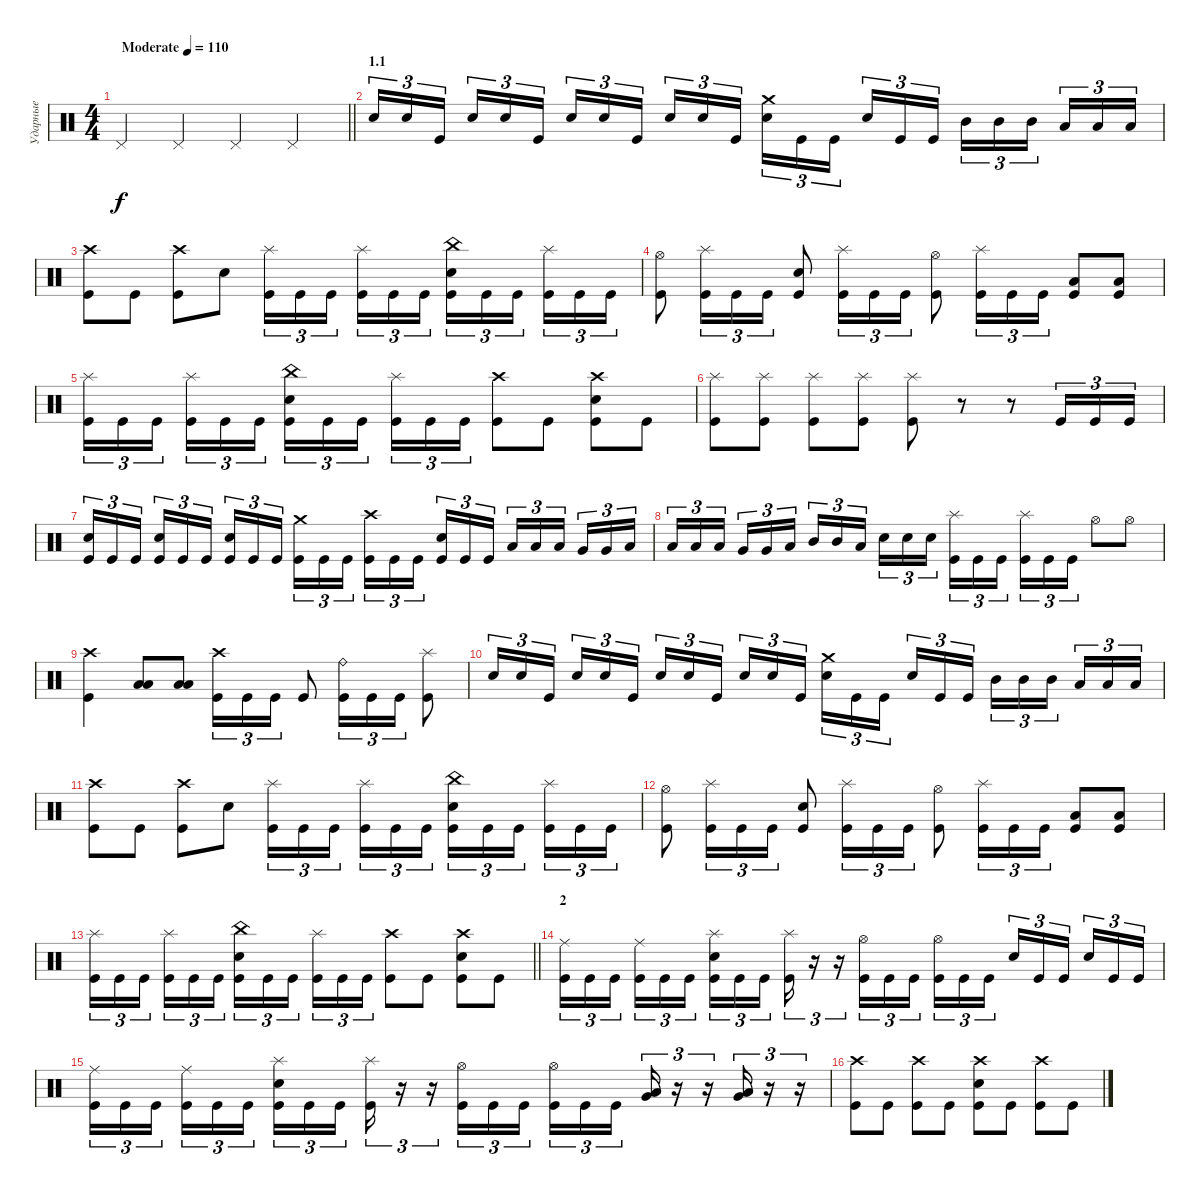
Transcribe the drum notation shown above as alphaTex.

\track ("Ударные" "Ударные") {instrument percussion}
\staff {score}
\articulation defaults
\ts (4 4)
\tempo (110 "Moderate")
\clef neutral
\barLineRight lightlight
\ks c "Pedal Hi-Hat (hit)".4{dy f} "Pedal Hi-Hat (hit)".4 "Pedal Hi-Hat (hit)".4 "Pedal Hi-Hat (hit)".4
|
\section ("" "1.1")
"Electric Snare (hit)".16{tu (3 2)} "Electric Snare (hit)".16{tu (3 2)} "Kick (hit)".16{tu (3 2) beam splitsecondary} "Electric Snare (hit)".16{tu (3 2)} "Electric Snare (hit)".16{tu (3 2)} "Kick (hit)".16{tu (3 2)} "Electric Snare (hit)".16{tu (3 2)} "Electric Snare (hit)".16{tu (3 2)} "Kick (hit)".16{tu (3 2) beam splitsecondary} "Electric Snare (hit)".16{tu (3 2)} "Electric Snare (hit)".16{tu (3 2)} "Kick (hit)".16{tu (3 2)} ("Crash medium (hit)" "Electric Snare (hit)").16{tu (3 2)} "Kick (hit)".16{tu (3 2)} "Kick (hit)".16{tu (3 2) beam splitsecondary} "Electric Snare (hit)".16{tu (3 2)} "Kick (hit)".16{tu (3 2)} "Kick (hit)".16{tu (3 2)} "Mid Tom (hit)".16{tu (3 2)} "Mid Tom (hit)".16{tu (3 2)} "Mid Tom (hit)".16{tu (3 2) beam splitsecondary} "Low Tom (hit)".16{tu (3 2)} "Low Tom (hit)".16{tu (3 2)} "Low Tom (hit)".16{tu (3 2)} |
("Crash high (hit)" "Kick (hit)").8 "Kick (hit)".8 ("Crash high (hit)" "Kick (hit)").8 "Electric Snare (hit)".8 ("Splash (hit)" "Kick (hit)").16{tu (3 2)} "Kick (hit)".16{tu (3 2)} "Kick (hit)".16{tu (3 2) beam splitsecondary} ("Splash (hit)" "Kick (hit)").16{tu (3 2)} "Kick (hit)".16{tu (3 2)} "Kick (hit)".16{tu (3 2)} ("China (hit)" "Electric Snare (hit)" "Kick (hit)").16{tu (3 2)} "Kick (hit)".16{tu (3 2)} "Kick (hit)".16{tu (3 2) beam splitsecondary} ("Splash (hit)" "Kick (hit)").16{tu (3 2)} "Kick (hit)".16{tu (3 2)} "Kick (hit)".16{tu (3 2)} |
("Hi-Hat (open)" "Kick (hit)").8 ("Splash (hit)" "Kick (hit)").16{tu (3 2)} "Kick (hit)".16{tu (3 2)} "Kick (hit)".16{tu (3 2)} ("Electric Snare (hit)" "Kick (hit)").8 ("Splash (hit)" "Kick (hit)").16{tu (3 2)} "Kick (hit)".16{tu (3 2)} "Kick (hit)".16{tu (3 2)} ("Hi-Hat (open)" "Kick (hit)").8 ("Splash (hit)" "Kick (hit)").16{tu (3 2)} "Kick (hit)".16{tu (3 2)} "Kick (hit)".16{tu (3 2)} ("Low Floor Tom (hit)" "Kick (hit)").8 ("Low Floor Tom (hit)" "Kick (hit)").8 |
("Splash (hit)" "Kick (hit)").16{tu (3 2)} "Kick (hit)".16{tu (3 2)} "Kick (hit)".16{tu (3 2) beam splitsecondary} ("Splash (hit)" "Kick (hit)").16{tu (3 2)} "Kick (hit)".16{tu (3 2)} "Kick (hit)".16{tu (3 2)} ("China (hit)" "Electric Snare (hit)" "Kick (hit)").16{tu (3 2)} "Kick (hit)".16{tu (3 2)} "Kick (hit)".16{tu (3 2) beam splitsecondary} ("Splash (hit)" "Kick (hit)").16{tu (3 2)} "Kick (hit)".16{tu (3 2)} "Kick (hit)".16{tu (3 2)} ("Crash high (hit)" "Kick (hit)").8 "Kick (hit)".8 ("Crash high (hit)" "Electric Snare (hit)" "Kick (hit)").8 "Kick (hit)".8 |
("Splash (hit)" "Kick (hit)").8 ("Splash (hit)" "Kick (hit)").8 ("Splash (hit)" "Kick (hit)").8 ("Splash (hit)" "Kick (hit)").8 ("Splash (hit)" "Kick (hit)").8 r.8 r.8 "Kick (hit)".16{tu (3 2)} "Kick (hit)".16{tu (3 2)} "Kick (hit)".16{tu (3 2)} |
("Electric Snare (hit)" "Kick (hit)").16{tu (3 2)} "Kick (hit)".16{tu (3 2)} "Kick (hit)".16{tu (3 2) beam splitsecondary} ("Electric Snare (hit)" "Kick (hit)").16{tu (3 2)} "Kick (hit)".16{tu (3 2)} "Kick (hit)".16{tu (3 2)} ("Electric Snare (hit)" "Kick (hit)").16{tu (3 2)} "Kick (hit)".16{tu (3 2)} "Kick (hit)".16{tu (3 2) beam splitsecondary} ("Crash medium (hit)" "Kick (hit)").16{tu (3 2)} "Kick (hit)".16{tu (3 2)} "Kick (hit)".16{tu (3 2)} ("Crash high (hit)" "Kick (hit)").16{tu (3 2)} "Kick (hit)".16{tu (3 2)} "Kick (hit)".16{tu (3 2) beam splitsecondary} ("Electric Snare (hit)" "Kick (hit)").16{tu (3 2)} "Kick (hit)".16{tu (3 2)} "Kick (hit)".16{tu (3 2)} "Low Tom (hit)".16{tu (3 2)} "Low Tom (hit)".16{tu (3 2)} "Low Tom (hit)".16{tu (3 2) beam splitsecondary} "Very Low Tom (hit)".16{tu (3 2)} "Very Low Tom (hit)".16{tu (3 2)} "Low Floor Tom (hit)".16{tu (3 2)} |
"Low Floor Tom (hit)".16{tu (3 2)} "Low Floor Tom (hit)".16{tu (3 2)} "Low Floor Tom (hit)".16{tu (3 2) beam splitsecondary} "Very Low Tom (hit)".16{tu (3 2)} "Very Low Tom (hit)".16{tu (3 2)} "Low Tom (hit)".16{tu (3 2)} "Mid Tom (hit)".16{tu (3 2)} "Mid Tom (hit)".16{tu (3 2)} "Low Tom (hit)".16{tu (3 2) beam splitsecondary} "Electric Snare (hit)".16{tu (3 2)} "Electric Snare (hit)".16{tu (3 2)} "Electric Snare (hit)".16{tu (3 2)} ("Splash (hit)" "Kick (hit)").16{tu (3 2)} "Kick (hit)".16{tu (3 2)} "Kick (hit)".16{tu (3 2) beam splitsecondary} ("Splash (hit)" "Kick (hit)").16{tu (3 2)} "Kick (hit)".16{tu (3 2)} "Kick (hit)".16{tu (3 2)} "Hi-Hat (open)".8 "Hi-Hat (open)".8 |
("Crash high (hit)" "Kick (hit)").4 ("Low Tom (hit)" "Low Floor Tom (hit)").8 ("Low Tom (hit)" "Low Floor Tom (hit)").8 ("Crash high (hit)" "Kick (hit)").16{tu (3 2)} "Kick (hit)".16{tu (3 2)} "Kick (hit)".16{tu (3 2)} "Kick (hit)".8 ("Ride (bell)" "Kick (hit)").16{tu (3 2)} "Kick (hit)".16{tu (3 2)} "Kick (hit)".16{tu (3 2)} ("Splash (hit)" "Kick (hit)").8 |
"Electric Snare (hit)".16{tu (3 2)} "Electric Snare (hit)".16{tu (3 2)} "Kick (hit)".16{tu (3 2) beam splitsecondary} "Electric Snare (hit)".16{tu (3 2)} "Electric Snare (hit)".16{tu (3 2)} "Kick (hit)".16{tu (3 2)} "Electric Snare (hit)".16{tu (3 2)} "Electric Snare (hit)".16{tu (3 2)} "Kick (hit)".16{tu (3 2) beam splitsecondary} "Electric Snare (hit)".16{tu (3 2)} "Electric Snare (hit)".16{tu (3 2)} "Kick (hit)".16{tu (3 2)} ("Crash medium (hit)" "Electric Snare (hit)").16{tu (3 2)} "Kick (hit)".16{tu (3 2)} "Kick (hit)".16{tu (3 2) beam splitsecondary} "Electric Snare (hit)".16{tu (3 2)} "Kick (hit)".16{tu (3 2)} "Kick (hit)".16{tu (3 2)} "Mid Tom (hit)".16{tu (3 2)} "Mid Tom (hit)".16{tu (3 2)} "Mid Tom (hit)".16{tu (3 2) beam splitsecondary} "Low Tom (hit)".16{tu (3 2)} "Low Tom (hit)".16{tu (3 2)} "Low Tom (hit)".16{tu (3 2)} |
("Crash high (hit)" "Kick (hit)").8 "Kick (hit)".8 ("Crash high (hit)" "Kick (hit)").8 "Electric Snare (hit)".8 ("Splash (hit)" "Kick (hit)").16{tu (3 2)} "Kick (hit)".16{tu (3 2)} "Kick (hit)".16{tu (3 2) beam splitsecondary} ("Splash (hit)" "Kick (hit)").16{tu (3 2)} "Kick (hit)".16{tu (3 2)} "Kick (hit)".16{tu (3 2)} ("China (hit)" "Electric Snare (hit)" "Kick (hit)").16{tu (3 2)} "Kick (hit)".16{tu (3 2)} "Kick (hit)".16{tu (3 2) beam splitsecondary} ("Splash (hit)" "Kick (hit)").16{tu (3 2)} "Kick (hit)".16{tu (3 2)} "Kick (hit)".16{tu (3 2)} |
("Hi-Hat (open)" "Kick (hit)").8 ("Splash (hit)" "Kick (hit)").16{tu (3 2)} "Kick (hit)".16{tu (3 2)} "Kick (hit)".16{tu (3 2)} ("Electric Snare (hit)" "Kick (hit)").8 ("Splash (hit)" "Kick (hit)").16{tu (3 2)} "Kick (hit)".16{tu (3 2)} "Kick (hit)".16{tu (3 2)} ("Hi-Hat (open)" "Kick (hit)").8 ("Splash (hit)" "Kick (hit)").16{tu (3 2)} "Kick (hit)".16{tu (3 2)} "Kick (hit)".16{tu (3 2)} ("Low Floor Tom (hit)" "Kick (hit)").8 ("Low Floor Tom (hit)" "Kick (hit)").8 |
\barLineRight lightlight
("Splash (hit)" "Kick (hit)").16{tu (3 2)} "Kick (hit)".16{tu (3 2)} "Kick (hit)".16{tu (3 2) beam splitsecondary} ("Splash (hit)" "Kick (hit)").16{tu (3 2)} "Kick (hit)".16{tu (3 2)} "Kick (hit)".16{tu (3 2)} ("China (hit)" "Electric Snare (hit)" "Kick (hit)").16{tu (3 2)} "Kick (hit)".16{tu (3 2)} "Kick (hit)".16{tu (3 2) beam splitsecondary} ("Splash (hit)" "Kick (hit)").16{tu (3 2)} "Kick (hit)".16{tu (3 2)} "Kick (hit)".16{tu (3 2)} ("Crash high (hit)" "Kick (hit)").8 "Kick (hit)".8 ("Crash high (hit)" "Electric Snare (hit)" "Kick (hit)").8 "Kick (hit)".8 |
\section ("" "2")
("Ride (middle)" "Kick (hit)").16{tu (3 2)} "Kick (hit)".16{tu (3 2)} "Kick (hit)".16{tu (3 2) beam splitsecondary} ("Ride (middle)" "Kick (hit)").16{tu (3 2)} "Kick (hit)".16{tu (3 2)} "Kick (hit)".16{tu (3 2)} ("Splash (hit)" "Electric Snare (hit)" "Kick (hit)").16{tu (3 2)} "Kick (hit)".16{tu (3 2)} "Kick (hit)".16{tu (3 2) beam splitsecondary} ("Splash (hit)" "Kick (hit)").16{tu (3 2)} r.16{tu (3 2)} r.16{tu (3 2)} ("Hi-Hat (open)" "Kick (hit)").16{tu (3 2)} "Kick (hit)".16{tu (3 2)} "Kick (hit)".16{tu (3 2) beam splitsecondary} ("Hi-Hat (open)" "Kick (hit)").16{tu (3 2)} "Kick (hit)".16{tu (3 2)} "Kick (hit)".16{tu (3 2)} "Electric Snare (hit)".16{tu (3 2)} "Kick (hit)".16{tu (3 2)} "Kick (hit)".16{tu (3 2) beam splitsecondary} "Electric Snare (hit)".16{tu (3 2)} "Kick (hit)".16{tu (3 2)} "Kick (hit)".16{tu (3 2)} |
("Ride (middle)" "Kick (hit)").16{tu (3 2)} "Kick (hit)".16{tu (3 2)} "Kick (hit)".16{tu (3 2) beam splitsecondary} ("Ride (middle)" "Kick (hit)").16{tu (3 2)} "Kick (hit)".16{tu (3 2)} "Kick (hit)".16{tu (3 2)} ("Splash (hit)" "Electric Snare (hit)" "Kick (hit)").16{tu (3 2)} "Kick (hit)".16{tu (3 2)} "Kick (hit)".16{tu (3 2) beam splitsecondary} ("Splash (hit)" "Kick (hit)").16{tu (3 2)} r.16{tu (3 2)} r.16{tu (3 2)} ("Hi-Hat (open)" "Kick (hit)").16{tu (3 2)} "Kick (hit)".16{tu (3 2)} "Kick (hit)".16{tu (3 2) beam splitsecondary} ("Hi-Hat (open)" "Kick (hit)").16{tu (3 2)} "Kick (hit)".16{tu (3 2)} "Kick (hit)".16{tu (3 2)} ("Very Low Tom (hit)" "Low Tom (hit)").16{tu (3 2)} r.16{tu (3 2)} r.16{tu (3 2)} ("Very Low Tom (hit)" "Low Tom (hit)").16{tu (3 2)} r.16{tu (3 2)} r.16{tu (3 2)} |
("Crash high (hit)" "Kick (hit)").8 "Kick (hit)".8 ("Crash high (hit)" "Kick (hit)").8 "Kick (hit)".8 ("Crash high (hit)" "Electric Snare (hit)" "Kick (hit)").8 "Kick (hit)".8 ("Crash high (hit)" "Kick (hit)").8 "Kick (hit)".8
